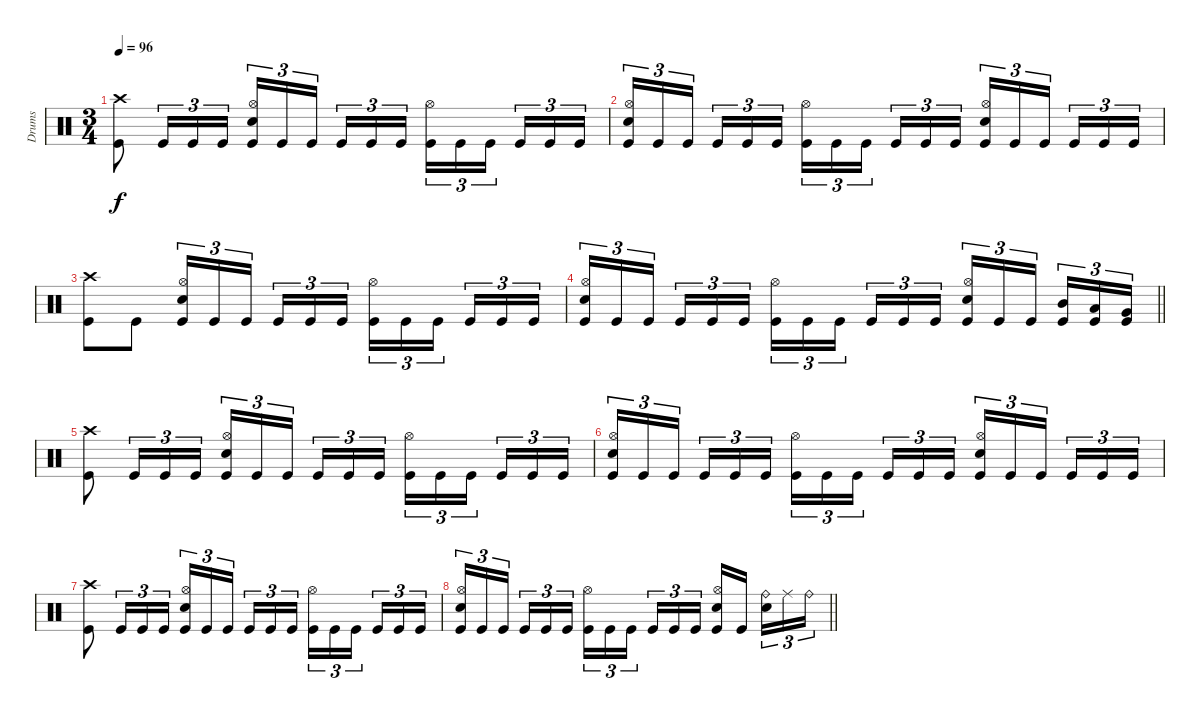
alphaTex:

\track ("Drums" "Drums") {instrument percussion}
\staff
\articulation defaults
\ts (3 4)
\tempo 96
\clef neutral
\ks c
("Crash high (hit)" "Kick (hit)").8{dy f} "Kick (hit)".16{tu (3 2)} "Kick (hit)".16{tu (3 2)} "Kick (hit)".16{tu (3 2)} ("Hi-Hat (open)" "Electric Snare (hit)" "Kick (hit)").16{tu (3 2)} "Kick (hit)".16{tu (3 2)} "Kick (hit)".16{tu (3 2) beam splitsecondary} "Kick (hit)".16{tu (3 2)} "Kick (hit)".16{tu (3 2)} "Kick (hit)".16{tu (3 2)} ("Hi-Hat (open)" "Kick (hit)").16{tu (3 2)} "Kick (hit)".16{tu (3 2)} "Kick (hit)".16{tu (3 2) beam splitsecondary} "Kick (hit)".16{tu (3 2)} "Kick (hit)".16{tu (3 2)} "Kick (hit)".16{tu (3 2)} |
("Hi-Hat (open)" "Electric Snare (hit)" "Kick (hit)").16{tu (3 2)} "Kick (hit)".16{tu (3 2)} "Kick (hit)".16{tu (3 2) beam splitsecondary} "Kick (hit)".16{tu (3 2)} "Kick (hit)".16{tu (3 2)} "Kick (hit)".16{tu (3 2)} ("Hi-Hat (open)" "Kick (hit)").16{tu (3 2)} "Kick (hit)".16{tu (3 2)} "Kick (hit)".16{tu (3 2) beam splitsecondary} "Kick (hit)".16{tu (3 2)} "Kick (hit)".16{tu (3 2)} "Kick (hit)".16{tu (3 2)} ("Hi-Hat (open)" "Electric Snare (hit)" "Kick (hit)").16{tu (3 2)} "Kick (hit)".16{tu (3 2)} "Kick (hit)".16{tu (3 2) beam splitsecondary} "Kick (hit)".16{tu (3 2)} "Kick (hit)".16{tu (3 2)} "Kick (hit)".16{tu (3 2)} |
("Crash high (hit)" "Kick (hit)").8 "Kick (hit)".8 ("Hi-Hat (open)" "Electric Snare (hit)" "Kick (hit)").16{tu (3 2)} "Kick (hit)".16{tu (3 2)} "Kick (hit)".16{tu (3 2) beam splitsecondary} "Kick (hit)".16{tu (3 2)} "Kick (hit)".16{tu (3 2)} "Kick (hit)".16{tu (3 2)} ("Hi-Hat (open)" "Kick (hit)").16{tu (3 2)} "Kick (hit)".16{tu (3 2)} "Kick (hit)".16{tu (3 2) beam splitsecondary} "Kick (hit)".16{tu (3 2)} "Kick (hit)".16{tu (3 2)} "Kick (hit)".16{tu (3 2)} |
\barLineRight lightlight
("Hi-Hat (open)" "Electric Snare (hit)" "Kick (hit)").16{tu (3 2)} "Kick (hit)".16{tu (3 2)} "Kick (hit)".16{tu (3 2) beam splitsecondary} "Kick (hit)".16{tu (3 2)} "Kick (hit)".16{tu (3 2)} "Kick (hit)".16{tu (3 2)} ("Hi-Hat (open)" "Kick (hit)").16{tu (3 2)} "Kick (hit)".16{tu (3 2)} "Kick (hit)".16{tu (3 2) beam splitsecondary} "Kick (hit)".16{tu (3 2)} "Kick (hit)".16{tu (3 2)} "Kick (hit)".16{tu (3 2)} ("Hi-Hat (open)" "Electric Snare (hit)" "Kick (hit)").16{tu (3 2)} "Kick (hit)".16{tu (3 2)} "Kick (hit)".16{tu (3 2) beam splitsecondary} ("Mid Tom (hit)" "Kick (hit)").16{tu (3 2)} ("Low Tom (hit)" "Kick (hit)").16{tu (3 2)} ("Very Low Tom (hit)" "Kick (hit)").16{tu (3 2)} |
("Crash high (hit)" "Kick (hit)").8 "Kick (hit)".16{tu (3 2)} "Kick (hit)".16{tu (3 2)} "Kick (hit)".16{tu (3 2)} ("Hi-Hat (open)" "Electric Snare (hit)" "Kick (hit)").16{tu (3 2)} "Kick (hit)".16{tu (3 2)} "Kick (hit)".16{tu (3 2) beam splitsecondary} "Kick (hit)".16{tu (3 2)} "Kick (hit)".16{tu (3 2)} "Kick (hit)".16{tu (3 2)} ("Hi-Hat (open)" "Kick (hit)").16{tu (3 2)} "Kick (hit)".16{tu (3 2)} "Kick (hit)".16{tu (3 2) beam splitsecondary} "Kick (hit)".16{tu (3 2)} "Kick (hit)".16{tu (3 2)} "Kick (hit)".16{tu (3 2)} |
("Hi-Hat (open)" "Electric Snare (hit)" "Kick (hit)").16{tu (3 2)} "Kick (hit)".16{tu (3 2)} "Kick (hit)".16{tu (3 2) beam splitsecondary} "Kick (hit)".16{tu (3 2)} "Kick (hit)".16{tu (3 2)} "Kick (hit)".16{tu (3 2)} ("Hi-Hat (open)" "Kick (hit)").16{tu (3 2)} "Kick (hit)".16{tu (3 2)} "Kick (hit)".16{tu (3 2) beam splitsecondary} "Kick (hit)".16{tu (3 2)} "Kick (hit)".16{tu (3 2)} "Kick (hit)".16{tu (3 2)} ("Hi-Hat (open)" "Electric Snare (hit)" "Kick (hit)").16{tu (3 2)} "Kick (hit)".16{tu (3 2)} "Kick (hit)".16{tu (3 2) beam splitsecondary} "Kick (hit)".16{tu (3 2)} "Kick (hit)".16{tu (3 2)} "Kick (hit)".16{tu (3 2)} |
("Crash high (hit)" "Kick (hit)").8 "Kick (hit)".16{tu (3 2)} "Kick (hit)".16{tu (3 2)} "Kick (hit)".16{tu (3 2)} ("Hi-Hat (open)" "Electric Snare (hit)" "Kick (hit)").16{tu (3 2)} "Kick (hit)".16{tu (3 2)} "Kick (hit)".16{tu (3 2) beam splitsecondary} "Kick (hit)".16{tu (3 2)} "Kick (hit)".16{tu (3 2)} "Kick (hit)".16{tu (3 2)} ("Hi-Hat (open)" "Kick (hit)").16{tu (3 2)} "Kick (hit)".16{tu (3 2)} "Kick (hit)".16{tu (3 2) beam splitsecondary} "Kick (hit)".16{tu (3 2)} "Kick (hit)".16{tu (3 2)} "Kick (hit)".16{tu (3 2)} |
\barLineRight lightlight
("Hi-Hat (open)" "Electric Snare (hit)" "Kick (hit)").16{tu (3 2)} "Kick (hit)".16{tu (3 2)} "Kick (hit)".16{tu (3 2) beam splitsecondary} "Kick (hit)".16{tu (3 2)} "Kick (hit)".16{tu (3 2)} "Kick (hit)".16{tu (3 2)} ("Hi-Hat (open)" "Kick (hit)").16{tu (3 2)} "Kick (hit)".16{tu (3 2)} "Kick (hit)".16{tu (3 2) beam splitsecondary} "Kick (hit)".16{tu (3 2)} "Kick (hit)".16{tu (3 2)} "Kick (hit)".16{tu (3 2)} ("Hi-Hat (open)" "Electric Snare (hit)" "Kick (hit)").16 "Kick (hit)".16{beam splitsecondary} ("Ride (bell)" "Electric Snare (hit)").16{tu (3 2)} "Ride (middle)".16{tu (3 2)} "Ride (bell)".16{tu (3 2)}
